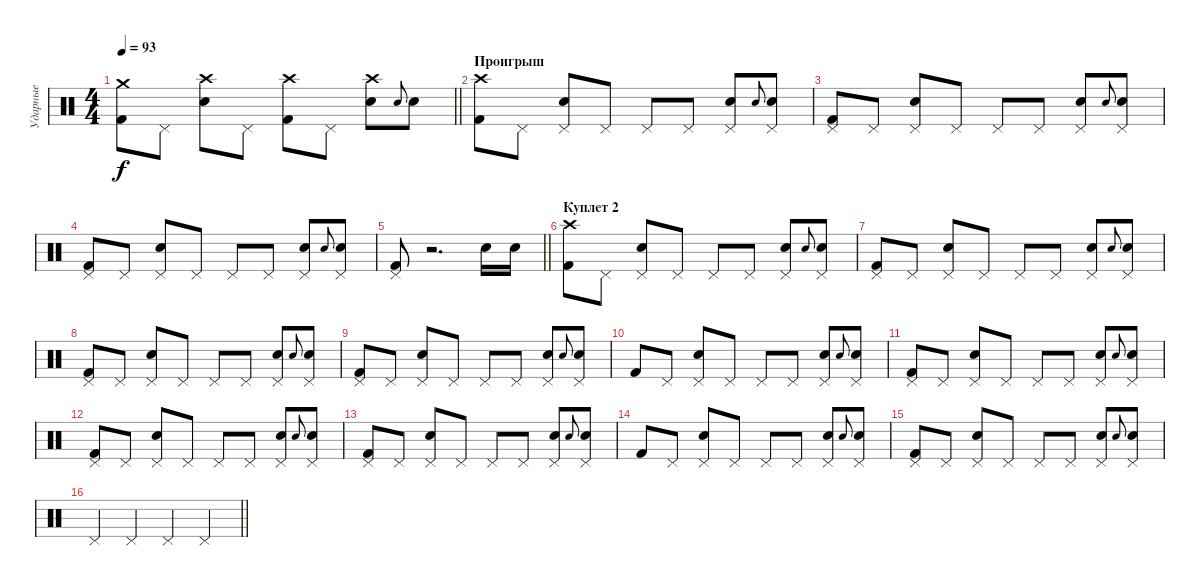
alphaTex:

\track ("Ударные" "Ударные") {instrument percussion}
\staff {score}
\articulation defaults
\ts (4 4)
\tempo 93
\clef neutral
\barLineRight lightlight
\ks c
("Crash medium (hit)" "Kick (hit) 2").8{dy f} "Pedal Hi-Hat (hit)".8 ("Crash high (hit)" "Electric Snare (hit)").8 "Pedal Hi-Hat (hit)".8 ("Kick (hit) 2" "Crash high (hit)").8 "Pedal Hi-Hat (hit)".8 ("Electric Snare (hit)" "Crash high (hit)").8 "Electric Snare (hit)".8{gr onbeat} "Electric Snare (hit)".8 |
\section ("" "Проигрыш")
("Kick (hit) 2" "Crash high (hit)").8 "Pedal Hi-Hat (hit)".8 ("Pedal Hi-Hat (hit)" "Electric Snare (hit)").8 "Pedal Hi-Hat (hit)".8 "Pedal Hi-Hat (hit)".8 "Pedal Hi-Hat (hit)".8 ("Electric Snare (hit)" "Pedal Hi-Hat (hit)").8 "Electric Snare (hit)".8{gr onbeat} ("Pedal Hi-Hat (hit)" "Electric Snare (hit)").8 |
("Kick (hit) 2" "Pedal Hi-Hat (hit)").8 "Pedal Hi-Hat (hit)".8 ("Pedal Hi-Hat (hit)" "Electric Snare (hit)").8 "Pedal Hi-Hat (hit)".8 "Pedal Hi-Hat (hit)".8 "Pedal Hi-Hat (hit)".8 ("Electric Snare (hit)" "Pedal Hi-Hat (hit)").8 "Electric Snare (hit)".8{gr onbeat} ("Pedal Hi-Hat (hit)" "Electric Snare (hit)").8 |
("Kick (hit) 2" "Pedal Hi-Hat (hit)").8 "Pedal Hi-Hat (hit)".8 ("Pedal Hi-Hat (hit)" "Electric Snare (hit)").8 "Pedal Hi-Hat (hit)".8 "Pedal Hi-Hat (hit)".8 "Pedal Hi-Hat (hit)".8 ("Electric Snare (hit)" "Pedal Hi-Hat (hit)").8 "Electric Snare (hit)".8{gr onbeat} ("Pedal Hi-Hat (hit)" "Electric Snare (hit)").8 |
\barLineRight lightlight
("Kick (hit) 2" "Pedal Hi-Hat (hit)").8 r.2{d} "Electric Snare (hit)".16 "Electric Snare (hit)".16 |
\section ("" "Куплет 2")
("Kick (hit) 2" "Crash high (hit)").8 "Pedal Hi-Hat (hit)".8 ("Pedal Hi-Hat (hit)" "Electric Snare (hit)").8 "Pedal Hi-Hat (hit)".8 "Pedal Hi-Hat (hit)".8 "Pedal Hi-Hat (hit)".8 ("Electric Snare (hit)" "Pedal Hi-Hat (hit)").8 "Electric Snare (hit)".8{gr onbeat} ("Pedal Hi-Hat (hit)" "Electric Snare (hit)").8 |
("Kick (hit) 2" "Pedal Hi-Hat (hit)").8 "Pedal Hi-Hat (hit)".8 ("Pedal Hi-Hat (hit)" "Electric Snare (hit)").8 "Pedal Hi-Hat (hit)".8 "Pedal Hi-Hat (hit)".8 "Pedal Hi-Hat (hit)".8 ("Electric Snare (hit)" "Pedal Hi-Hat (hit)").8 "Electric Snare (hit)".8{gr onbeat} ("Pedal Hi-Hat (hit)" "Electric Snare (hit)").8 |
("Kick (hit) 2" "Pedal Hi-Hat (hit)").8 "Pedal Hi-Hat (hit)".8 ("Pedal Hi-Hat (hit)" "Electric Snare (hit)").8 "Pedal Hi-Hat (hit)".8 "Pedal Hi-Hat (hit)".8 "Pedal Hi-Hat (hit)".8 ("Electric Snare (hit)" "Pedal Hi-Hat (hit)").8 "Electric Snare (hit)".8{gr onbeat} ("Pedal Hi-Hat (hit)" "Electric Snare (hit)").8 |
("Kick (hit) 2" "Pedal Hi-Hat (hit)").8 "Pedal Hi-Hat (hit)".8 ("Pedal Hi-Hat (hit)" "Electric Snare (hit)").8 "Pedal Hi-Hat (hit)".8 "Pedal Hi-Hat (hit)".8 "Pedal Hi-Hat (hit)".8 ("Electric Snare (hit)" "Pedal Hi-Hat (hit)").8 "Electric Snare (hit)".8{gr onbeat} ("Pedal Hi-Hat (hit)" "Electric Snare (hit)").8 |
"Kick (hit) 2".8 "Pedal Hi-Hat (hit)".8 ("Pedal Hi-Hat (hit)" "Electric Snare (hit)").8 "Pedal Hi-Hat (hit)".8 "Pedal Hi-Hat (hit)".8 "Pedal Hi-Hat (hit)".8 ("Electric Snare (hit)" "Pedal Hi-Hat (hit)").8 "Electric Snare (hit)".8{gr onbeat} ("Pedal Hi-Hat (hit)" "Electric Snare (hit)").8 |
("Kick (hit) 2" "Pedal Hi-Hat (hit)").8 "Pedal Hi-Hat (hit)".8 ("Pedal Hi-Hat (hit)" "Electric Snare (hit)").8 "Pedal Hi-Hat (hit)".8 "Pedal Hi-Hat (hit)".8 "Pedal Hi-Hat (hit)".8 ("Electric Snare (hit)" "Pedal Hi-Hat (hit)").8 "Electric Snare (hit)".8{gr onbeat} ("Pedal Hi-Hat (hit)" "Electric Snare (hit)").8 |
("Kick (hit) 2" "Pedal Hi-Hat (hit)").8 "Pedal Hi-Hat (hit)".8 ("Pedal Hi-Hat (hit)" "Electric Snare (hit)").8 "Pedal Hi-Hat (hit)".8 "Pedal Hi-Hat (hit)".8 "Pedal Hi-Hat (hit)".8 ("Electric Snare (hit)" "Pedal Hi-Hat (hit)").8 "Electric Snare (hit)".8{gr onbeat} ("Pedal Hi-Hat (hit)" "Electric Snare (hit)").8 |
("Kick (hit) 2" "Pedal Hi-Hat (hit)").8 "Pedal Hi-Hat (hit)".8 ("Pedal Hi-Hat (hit)" "Electric Snare (hit)").8 "Pedal Hi-Hat (hit)".8 "Pedal Hi-Hat (hit)".8 "Pedal Hi-Hat (hit)".8 ("Electric Snare (hit)" "Pedal Hi-Hat (hit)").8 "Electric Snare (hit)".8{gr onbeat} ("Pedal Hi-Hat (hit)" "Electric Snare (hit)").8 |
"Kick (hit) 2".8 "Pedal Hi-Hat (hit)".8 ("Pedal Hi-Hat (hit)" "Electric Snare (hit)").8 "Pedal Hi-Hat (hit)".8 "Pedal Hi-Hat (hit)".8 "Pedal Hi-Hat (hit)".8 ("Electric Snare (hit)" "Pedal Hi-Hat (hit)").8 "Electric Snare (hit)".8{gr onbeat} ("Pedal Hi-Hat (hit)" "Electric Snare (hit)").8 |
("Kick (hit) 2" "Pedal Hi-Hat (hit)").8 "Pedal Hi-Hat (hit)".8 ("Pedal Hi-Hat (hit)" "Electric Snare (hit)").8 "Pedal Hi-Hat (hit)".8 "Pedal Hi-Hat (hit)".8 "Pedal Hi-Hat (hit)".8 ("Electric Snare (hit)" "Pedal Hi-Hat (hit)").8 "Electric Snare (hit)".8{gr onbeat} ("Pedal Hi-Hat (hit)" "Electric Snare (hit)").8 |
\barLineRight lightlight "Pedal Hi-Hat (hit)".4 "Pedal Hi-Hat (hit)".4 "Pedal Hi-Hat (hit)".4 "Pedal Hi-Hat (hit)".4
